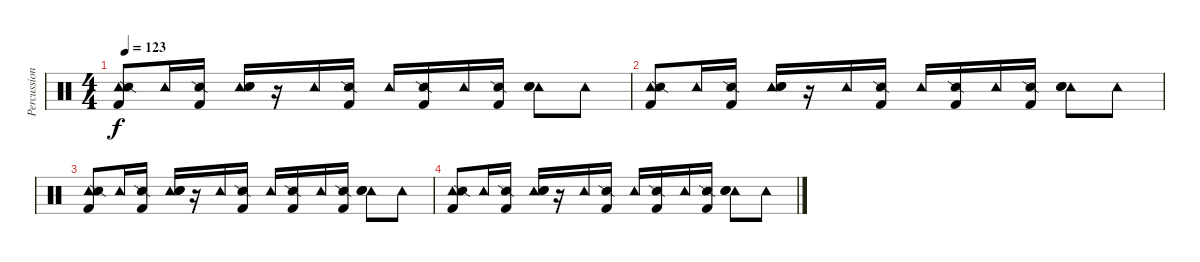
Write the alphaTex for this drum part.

\track ("Percussion" "Percussion") {instrument percussion}
\staff {score}
\articulation defaults
\ts (4 4)
\tempo 123
\clef neutral
\ks c
("Tambourine (hit)" "Snare (side stick) 2" "Kick (hit) 2").8{dy f} "Tambourine (hit)".16 ("Snare (side stick) 2" "Kick (hit) 2").16 ("Tambourine (hit)" "Electric Snare (hit)" "Snare (hit) 2").16 r.16 "Tambourine (hit)".16 ("Snare (side stick) 2" "Kick (hit) 2").16 "Tambourine (hit)".16 ("Snare (side stick) 2" "Kick (hit) 2").16 "Tambourine (hit)".16 ("Snare (side stick) 2" "Kick (hit) 2").16 ("Tambourine (hit)" "Electric Snare (hit)" "Snare (hit) 2").8 "Tambourine (hit)".8 |
("Tambourine (hit)" "Snare (side stick) 2" "Kick (hit) 2").8 "Tambourine (hit)".16 ("Snare (side stick) 2" "Kick (hit) 2").16 ("Tambourine (hit)" "Electric Snare (hit)" "Snare (hit) 2").16 r.16 "Tambourine (hit)".16 ("Snare (side stick) 2" "Kick (hit) 2").16 "Tambourine (hit)".16 ("Snare (side stick) 2" "Kick (hit) 2").16 "Tambourine (hit)".16 ("Snare (side stick) 2" "Kick (hit) 2").16 ("Tambourine (hit)" "Electric Snare (hit)" "Snare (hit) 2").8 "Tambourine (hit)".8 |
("Tambourine (hit)" "Snare (side stick) 2" "Kick (hit) 2").8 "Tambourine (hit)".16 ("Snare (side stick) 2" "Kick (hit) 2").16 ("Tambourine (hit)" "Electric Snare (hit)" "Snare (hit) 2").16 r.16 "Tambourine (hit)".16 ("Snare (side stick) 2" "Kick (hit) 2").16 "Tambourine (hit)".16 ("Snare (side stick) 2" "Kick (hit) 2").16 "Tambourine (hit)".16 ("Snare (side stick) 2" "Kick (hit) 2").16 ("Tambourine (hit)" "Electric Snare (hit)" "Snare (hit) 2").8 "Tambourine (hit)".8 |
("Tambourine (hit)" "Snare (side stick) 2" "Kick (hit) 2").8 "Tambourine (hit)".16 ("Snare (side stick) 2" "Kick (hit) 2").16 ("Tambourine (hit)" "Electric Snare (hit)" "Snare (hit) 2").16 r.16 "Tambourine (hit)".16 ("Snare (side stick) 2" "Kick (hit) 2").16 "Tambourine (hit)".16 ("Snare (side stick) 2" "Kick (hit) 2").16 "Tambourine (hit)".16 ("Snare (side stick) 2" "Kick (hit) 2").16 ("Tambourine (hit)" "Electric Snare (hit)" "Snare (hit) 2").8 "Tambourine (hit)".8
